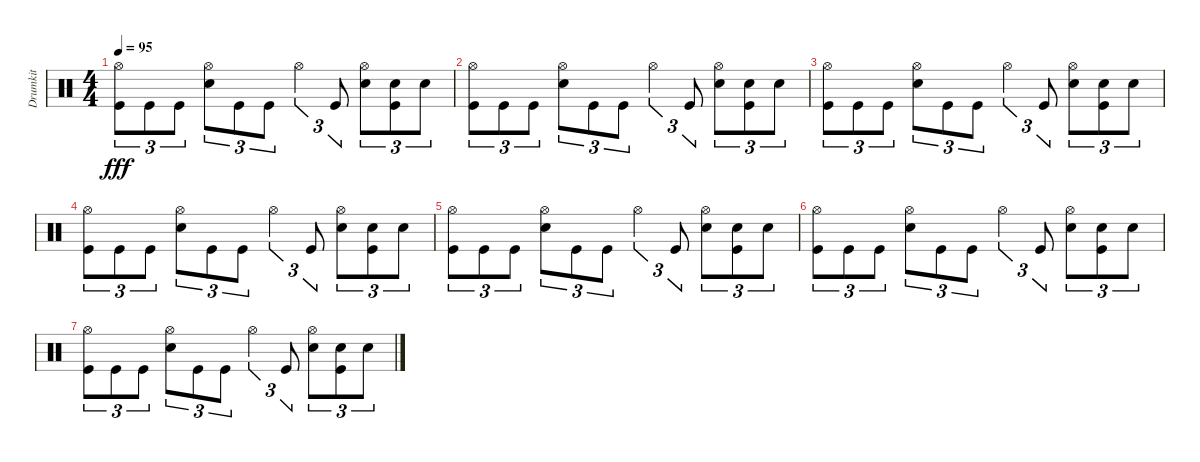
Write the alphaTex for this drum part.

\track ("Drumkit" "Drumkit") {instrument percussion}
\staff {score}
\articulation defaults
\ts (4 4)
\tempo 95
\clef neutral
\ks c
("Hi-Hat (open)" "Kick (hit)").8{tu (3 2) dy fff} "Kick (hit)".8{tu (3 2)} "Kick (hit)".8{tu (3 2)} ("Hi-Hat (open)" "Snare (hit) 2").8{tu (3 2)} "Kick (hit)".8{tu (3 2)} "Kick (hit)".8{tu (3 2)} "Hi-Hat (open)".4{tu (3 2)} "Kick (hit)".8{tu (3 2)} ("Hi-Hat (open)" "Snare (hit) 2").8{tu (3 2)} ("Snare (hit) 2" "Kick (hit)").8{tu (3 2)} "Snare (hit) 2".8{tu (3 2)} |
("Hi-Hat (open)" "Kick (hit)").8{tu (3 2)} "Kick (hit)".8{tu (3 2)} "Kick (hit)".8{tu (3 2)} ("Hi-Hat (open)" "Snare (hit) 2").8{tu (3 2)} "Kick (hit)".8{tu (3 2)} "Kick (hit)".8{tu (3 2)} "Hi-Hat (open)".4{tu (3 2)} "Kick (hit)".8{tu (3 2)} ("Hi-Hat (open)" "Snare (hit) 2").8{tu (3 2)} ("Snare (hit) 2" "Kick (hit)").8{tu (3 2)} "Snare (hit) 2".8{tu (3 2)} |
("Hi-Hat (open)" "Kick (hit)").8{tu (3 2)} "Kick (hit)".8{tu (3 2)} "Kick (hit)".8{tu (3 2)} ("Hi-Hat (open)" "Snare (hit) 2").8{tu (3 2)} "Kick (hit)".8{tu (3 2)} "Kick (hit)".8{tu (3 2)} "Hi-Hat (open)".4{tu (3 2)} "Kick (hit)".8{tu (3 2)} ("Hi-Hat (open)" "Snare (hit) 2").8{tu (3 2)} ("Snare (hit) 2" "Kick (hit)").8{tu (3 2)} "Snare (hit) 2".8{tu (3 2)} |
("Hi-Hat (open)" "Kick (hit)").8{tu (3 2)} "Kick (hit)".8{tu (3 2)} "Kick (hit)".8{tu (3 2)} ("Hi-Hat (open)" "Snare (hit) 2").8{tu (3 2)} "Kick (hit)".8{tu (3 2)} "Kick (hit)".8{tu (3 2)} "Hi-Hat (open)".4{tu (3 2)} "Kick (hit)".8{tu (3 2)} ("Hi-Hat (open)" "Snare (hit) 2").8{tu (3 2)} ("Snare (hit) 2" "Kick (hit)").8{tu (3 2)} "Snare (hit) 2".8{tu (3 2)} |
("Hi-Hat (open)" "Kick (hit)").8{tu (3 2)} "Kick (hit)".8{tu (3 2)} "Kick (hit)".8{tu (3 2)} ("Hi-Hat (open)" "Snare (hit) 2").8{tu (3 2)} "Kick (hit)".8{tu (3 2)} "Kick (hit)".8{tu (3 2)} "Hi-Hat (open)".4{tu (3 2)} "Kick (hit)".8{tu (3 2)} ("Hi-Hat (open)" "Snare (hit) 2").8{tu (3 2)} ("Snare (hit) 2" "Kick (hit)").8{tu (3 2)} "Snare (hit) 2".8{tu (3 2)} |
("Hi-Hat (open)" "Kick (hit)").8{tu (3 2)} "Kick (hit)".8{tu (3 2)} "Kick (hit)".8{tu (3 2)} ("Hi-Hat (open)" "Snare (hit) 2").8{tu (3 2)} "Kick (hit)".8{tu (3 2)} "Kick (hit)".8{tu (3 2)} "Hi-Hat (open)".4{tu (3 2)} "Kick (hit)".8{tu (3 2)} ("Hi-Hat (open)" "Snare (hit) 2").8{tu (3 2)} ("Snare (hit) 2" "Kick (hit)").8{tu (3 2)} "Snare (hit) 2".8{tu (3 2)} |
("Hi-Hat (open)" "Kick (hit)").8{tu (3 2)} "Kick (hit)".8{tu (3 2)} "Kick (hit)".8{tu (3 2)} ("Hi-Hat (open)" "Snare (hit) 2").8{tu (3 2)} "Kick (hit)".8{tu (3 2)} "Kick (hit)".8{tu (3 2)} "Hi-Hat (open)".4{tu (3 2)} "Kick (hit)".8{tu (3 2)} ("Hi-Hat (open)" "Snare (hit) 2").8{tu (3 2)} ("Snare (hit) 2" "Kick (hit)").8{tu (3 2)} "Snare (hit) 2".8{tu (3 2)}
